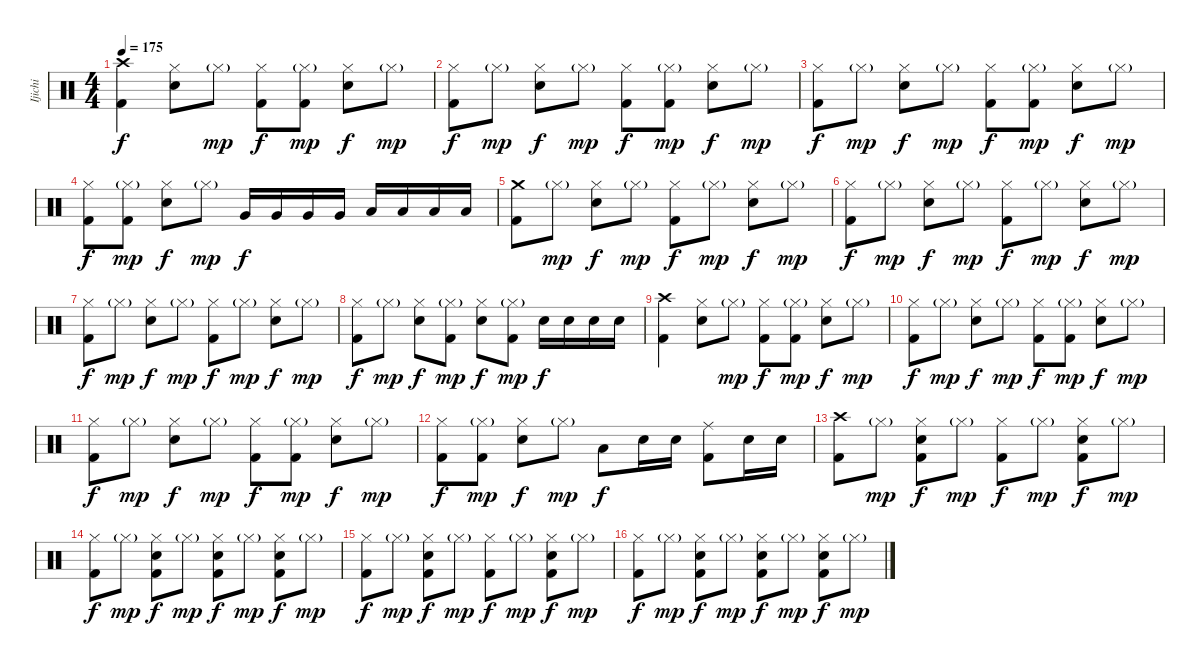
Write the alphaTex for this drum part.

\track ("Ijichi" "Ijichi") {instrument percussion}
\staff {score}
\articulation defaults
\ts (4 4)
\tempo 175
\clef neutral
\ks c
("Crash high (hit)" "Kick (hit) 2").4{dy f} ("Hi-Hat (closed)" "Electric Snare (hit)").8 "Hi-Hat (closed)"{g}.8{dy mp} ("Hi-Hat (closed)" "Kick (hit) 2").8{dy f} ("Hi-Hat (closed)"{g} "Kick (hit) 2").8{dy mp} ("Hi-Hat (closed)" "Electric Snare (hit)").8{dy f} "Hi-Hat (closed)"{g}.8{dy mp} |
("Hi-Hat (closed)" "Kick (hit) 2").8{dy f} "Hi-Hat (closed)"{g}.8{dy mp} ("Hi-Hat (closed)" "Electric Snare (hit)").8{dy f} "Hi-Hat (closed)"{g}.8{dy mp} ("Hi-Hat (closed)" "Kick (hit) 2").8{dy f} ("Hi-Hat (closed)"{g} "Kick (hit) 2").8{dy mp} ("Hi-Hat (closed)" "Electric Snare (hit)").8{dy f} "Hi-Hat (closed)"{g}.8{dy mp} |
("Hi-Hat (closed)" "Kick (hit) 2").8{dy f} "Hi-Hat (closed)"{g}.8{dy mp} ("Hi-Hat (closed)" "Electric Snare (hit)").8{dy f} "Hi-Hat (closed)"{g}.8{dy mp} ("Hi-Hat (closed)" "Kick (hit) 2").8{dy f} ("Hi-Hat (closed)"{g} "Kick (hit) 2").8{dy mp} ("Hi-Hat (closed)" "Electric Snare (hit)").8{dy f} "Hi-Hat (closed)"{g}.8{dy mp} |
("Hi-Hat (closed)" "Kick (hit) 2").8{dy f} ("Hi-Hat (closed)"{g} "Kick (hit) 2").8{dy mp} ("Hi-Hat (closed)" "Electric Snare (hit)").8{dy f} "Hi-Hat (closed)"{g}.8{dy mp} "Very Low Tom (hit)".16{dy f} "Very Low Tom (hit)".16 "Very Low Tom (hit)".16 "Very Low Tom (hit)".16 "Low Floor Tom (hit)".16 "Low Floor Tom (hit)".16 "Low Floor Tom (hit)".16 "Low Floor Tom (hit)".16 |
("Crash medium (hit)" "Kick (hit) 2").8 "Hi-Hat (closed)"{g}.8{dy mp} ("Hi-Hat (closed)" "Electric Snare (hit)").8{dy f} "Hi-Hat (closed)"{g}.8{dy mp} ("Hi-Hat (closed)" "Kick (hit) 2").8{dy f} "Hi-Hat (closed)"{g}.8{dy mp} ("Hi-Hat (closed)" "Electric Snare (hit)").8{dy f} "Hi-Hat (closed)"{g}.8{dy mp} |
("Hi-Hat (closed)" "Kick (hit) 2").8{dy f} "Hi-Hat (closed)"{g}.8{dy mp} ("Hi-Hat (closed)" "Electric Snare (hit)").8{dy f} "Hi-Hat (closed)"{g}.8{dy mp} ("Hi-Hat (closed)" "Kick (hit) 2").8{dy f} "Hi-Hat (closed)"{g}.8{dy mp} ("Hi-Hat (closed)" "Electric Snare (hit)").8{dy f} "Hi-Hat (closed)"{g}.8{dy mp} |
("Hi-Hat (closed)" "Kick (hit) 2").8{dy f} "Hi-Hat (closed)"{g}.8{dy mp} ("Hi-Hat (closed)" "Electric Snare (hit)").8{dy f} "Hi-Hat (closed)"{g}.8{dy mp} ("Hi-Hat (closed)" "Kick (hit) 2").8{dy f} "Hi-Hat (closed)"{g}.8{dy mp} ("Hi-Hat (closed)" "Electric Snare (hit)").8{dy f} "Hi-Hat (closed)"{g}.8{dy mp} |
("Hi-Hat (closed)" "Kick (hit) 2").8{dy f} "Hi-Hat (closed)"{g}.8{dy mp} ("Hi-Hat (closed)" "Electric Snare (hit)").8{dy f} ("Hi-Hat (closed)"{g} "Kick (hit) 2").8{dy mp} ("Hi-Hat (closed)" "Electric Snare (hit)").8{dy f} ("Hi-Hat (closed)"{g} "Kick (hit) 2").8{dy mp} "Electric Snare (hit)".16{dy f} "Electric Snare (hit)".16 "Electric Snare (hit)".16 "Electric Snare (hit)".16 |
("Crash high (hit)" "Kick (hit) 2").4 ("Hi-Hat (closed)" "Electric Snare (hit)").8 "Hi-Hat (closed)"{g}.8{dy mp} ("Hi-Hat (closed)" "Kick (hit) 2").8{dy f} ("Hi-Hat (closed)"{g} "Kick (hit) 2").8{dy mp} ("Hi-Hat (closed)" "Electric Snare (hit)").8{dy f} "Hi-Hat (closed)"{g}.8{dy mp} |
("Hi-Hat (closed)" "Kick (hit) 2").8{dy f} "Hi-Hat (closed)"{g}.8{dy mp} ("Hi-Hat (closed)" "Electric Snare (hit)").8{dy f} "Hi-Hat (closed)"{g}.8{dy mp} ("Hi-Hat (closed)" "Kick (hit) 2").8{dy f} ("Hi-Hat (closed)"{g} "Kick (hit) 2").8{dy mp} ("Hi-Hat (closed)" "Electric Snare (hit)").8{dy f} "Hi-Hat (closed)"{g}.8{dy mp} |
("Hi-Hat (closed)" "Kick (hit) 2").8{dy f} "Hi-Hat (closed)"{g}.8{dy mp} ("Hi-Hat (closed)" "Electric Snare (hit)").8{dy f} "Hi-Hat (closed)"{g}.8{dy mp} ("Hi-Hat (closed)" "Kick (hit) 2").8{dy f} ("Hi-Hat (closed)"{g} "Kick (hit) 2").8{dy mp} ("Hi-Hat (closed)" "Electric Snare (hit)").8{dy f} "Hi-Hat (closed)"{g}.8{dy mp} |
("Hi-Hat (closed)" "Kick (hit) 2").8{dy f} ("Hi-Hat (closed)"{g} "Kick (hit) 2").8{dy mp} ("Hi-Hat (closed)" "Electric Snare (hit)").8{dy f} "Hi-Hat (closed)"{g}.8{dy mp} "Low Floor Tom (hit)".8{dy f} "Electric Snare (hit)".16 "Electric Snare (hit)".16 ("Ride (middle)" "Kick (hit) 2").8 "Electric Snare (hit)".16 "Electric Snare (hit)".16 |
("Crash high (hit)" "Kick (hit) 2").8 "Hi-Hat (closed)"{g}.8{dy mp} ("Hi-Hat (closed)" "Electric Snare (hit)" "Kick (hit) 2").8{dy f} "Hi-Hat (closed)"{g}.8{dy mp} ("Hi-Hat (closed)" "Kick (hit) 2").8{dy f} "Hi-Hat (closed)"{g}.8{dy mp} ("Hi-Hat (closed)" "Electric Snare (hit)" "Kick (hit) 2").8{dy f} "Hi-Hat (closed)"{g}.8{dy mp} |
("Hi-Hat (closed)" "Kick (hit) 2").8{dy f} "Hi-Hat (closed)"{g}.8{dy mp} ("Hi-Hat (closed)" "Electric Snare (hit)" "Kick (hit) 2").8{dy f} "Hi-Hat (closed)"{g}.8{dy mp} ("Hi-Hat (closed)" "Electric Snare (hit)" "Kick (hit) 2").8{dy f} "Hi-Hat (closed)"{g}.8{dy mp} ("Hi-Hat (closed)" "Electric Snare (hit)" "Kick (hit) 2").8{dy f} "Hi-Hat (closed)"{g}.8{dy mp} |
("Hi-Hat (closed)" "Kick (hit) 2").8{dy f} "Hi-Hat (closed)"{g}.8{dy mp} ("Hi-Hat (closed)" "Electric Snare (hit)" "Kick (hit) 2").8{dy f} "Hi-Hat (closed)"{g}.8{dy mp} ("Hi-Hat (closed)" "Kick (hit) 2").8{dy f} "Hi-Hat (closed)"{g}.8{dy mp} ("Hi-Hat (closed)" "Electric Snare (hit)" "Kick (hit) 2").8{dy f} "Hi-Hat (closed)"{g}.8{dy mp} |
("Hi-Hat (closed)" "Kick (hit) 2").8{dy f} "Hi-Hat (closed)"{g}.8{dy mp} ("Hi-Hat (closed)" "Electric Snare (hit)" "Kick (hit) 2").8{dy f} "Hi-Hat (closed)"{g}.8{dy mp} ("Hi-Hat (closed)" "Electric Snare (hit)" "Kick (hit) 2").8{dy f} "Hi-Hat (closed)"{g}.8{dy mp} ("Hi-Hat (closed)" "Electric Snare (hit)" "Kick (hit) 2").8{dy f} "Hi-Hat (closed)"{g}.8{dy mp}
